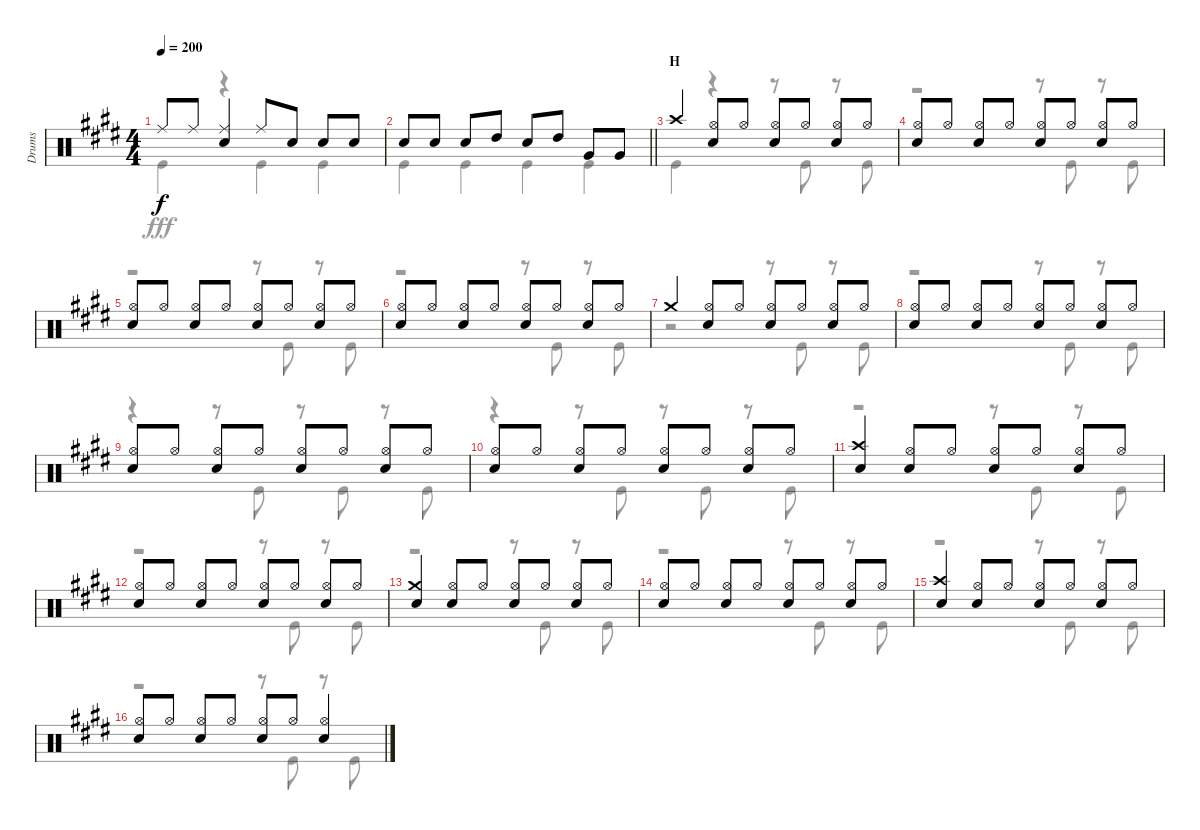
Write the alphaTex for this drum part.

\track ("Drums" "Drums") {instrument percussion}
\staff {score}
\articulation defaults
\voice
\ts (4 4)
\tempo 200
\clef neutral
\ks e "Ride (middle)".8{dy f} "Ride (middle)".8
("Ride (middle)" "Snare (hit) 2").4 "Ride (middle)".8 "Snare (hit) 2".8 "Snare (hit) 2".8 "Snare (hit) 2".8 |
\barLineRight lightlight "Snare (hit) 2".8 "Snare (hit) 2".8 "Snare (hit) 2".8 "High Tom (hit)".8 "Snare (hit) 2".8 "High Tom (hit)".8 "Very Low Tom (hit)".8 "Very Low Tom (hit)".8
|
\section ("" "H")
"Crash high (hit)".4 ("Hi-Hat (open)" "Snare (hit) 2").8 "Hi-Hat (open)".8 ("Hi-Hat (open)" "Snare (hit) 2").8 "Hi-Hat (open)".8 ("Hi-Hat (open)" "Snare (hit) 2").8 "Hi-Hat (open)".8 |
("Hi-Hat (open)" "Snare (hit) 2").8 "Hi-Hat (open)".8 ("Hi-Hat (open)" "Snare (hit) 2").8 "Hi-Hat (open)".8 ("Hi-Hat (open)" "Snare (hit) 2").8 "Hi-Hat (open)".8 ("Hi-Hat (open)" "Snare (hit) 2").8 "Hi-Hat (open)".8 |
("Hi-Hat (open)" "Snare (hit) 2").8 "Hi-Hat (open)".8 ("Hi-Hat (open)" "Snare (hit) 2").8 "Hi-Hat (open)".8 ("Hi-Hat (open)" "Snare (hit) 2").8 "Hi-Hat (open)".8 ("Hi-Hat (open)" "Snare (hit) 2").8 "Hi-Hat (open)".8 |
("Hi-Hat (open)" "Snare (hit) 2").8 "Hi-Hat (open)".8 ("Hi-Hat (open)" "Snare (hit) 2").8 "Hi-Hat (open)".8 ("Hi-Hat (open)" "Snare (hit) 2").8 "Hi-Hat (open)".8 ("Hi-Hat (open)" "Snare (hit) 2").8 "Hi-Hat (open)".8 |
"Crash medium (hit)".4 ("Hi-Hat (open)" "Snare (hit) 2").8 "Hi-Hat (open)".8 ("Hi-Hat (open)" "Snare (hit) 2").8 "Hi-Hat (open)".8 ("Hi-Hat (open)" "Snare (hit) 2").8 "Hi-Hat (open)".8 |
("Hi-Hat (open)" "Snare (hit) 2").8 "Hi-Hat (open)".8 ("Hi-Hat (open)" "Snare (hit) 2").8 "Hi-Hat (open)".8 ("Hi-Hat (open)" "Snare (hit) 2").8 "Hi-Hat (open)".8 ("Hi-Hat (open)" "Snare (hit) 2").8 "Hi-Hat (open)".8 |
("Hi-Hat (open)" "Snare (hit) 2").8 "Hi-Hat (open)".8 ("Hi-Hat (open)" "Snare (hit) 2").8 "Hi-Hat (open)".8 ("Hi-Hat (open)" "Snare (hit) 2").8 "Hi-Hat (open)".8 ("Hi-Hat (open)" "Snare (hit) 2").8 "Hi-Hat (open)".8 |
("Hi-Hat (open)" "Snare (hit) 2").8 "Hi-Hat (open)".8 ("Hi-Hat (open)" "Snare (hit) 2").8 "Hi-Hat (open)".8 ("Hi-Hat (open)" "Snare (hit) 2").8 "Hi-Hat (open)".8 ("Hi-Hat (open)" "Snare (hit) 2").8 "Hi-Hat (open)".8 |
("Crash high (hit)" "Snare (hit) 2").4 ("Hi-Hat (open)" "Snare (hit) 2").8 "Hi-Hat (open)".8 ("Hi-Hat (open)" "Snare (hit) 2").8 "Hi-Hat (open)".8 ("Hi-Hat (open)" "Snare (hit) 2").8 "Hi-Hat (open)".8 |
("Hi-Hat (open)" "Snare (hit) 2").8 "Hi-Hat (open)".8 ("Hi-Hat (open)" "Snare (hit) 2").8 "Hi-Hat (open)".8 ("Hi-Hat (open)" "Snare (hit) 2").8 "Hi-Hat (open)".8 ("Hi-Hat (open)" "Snare (hit) 2").8 "Hi-Hat (open)".8 |
("Crash medium (hit)" "Snare (hit) 2").4 ("Hi-Hat (open)" "Snare (hit) 2").8 "Hi-Hat (open)".8 ("Hi-Hat (open)" "Snare (hit) 2").8 "Hi-Hat (open)".8 ("Hi-Hat (open)" "Snare (hit) 2").8 "Hi-Hat (open)".8 |
("Hi-Hat (open)" "Snare (hit) 2").8 "Hi-Hat (open)".8 ("Hi-Hat (open)" "Snare (hit) 2").8 "Hi-Hat (open)".8 ("Hi-Hat (open)" "Snare (hit) 2").8 "Hi-Hat (open)".8 ("Hi-Hat (open)" "Snare (hit) 2").8 "Hi-Hat (open)".8 |
("Crash high (hit)" "Snare (hit) 2").4 ("Hi-Hat (open)" "Snare (hit) 2").8 "Hi-Hat (open)".8 ("Hi-Hat (open)" "Snare (hit) 2").8 "Hi-Hat (open)".8 ("Hi-Hat (open)" "Snare (hit) 2").8 "Hi-Hat (open)".8 |
("Hi-Hat (open)" "Snare (hit) 2").8 "Hi-Hat (open)".8 ("Hi-Hat (open)" "Snare (hit) 2").8 "Hi-Hat (open)".8 ("Hi-Hat (open)" "Snare (hit) 2").8 "Hi-Hat (open)".8 ("Hi-Hat (open)" "Snare (hit) 2").4
\voice
\clef neutral
\ottava regular
\simile none
\ks e "Kick (hit)".4{dy fff}
r.4 "Kick (hit)".4 "Kick (hit)".4 |
\barLineRight lightlight "Kick (hit)".4 "Kick (hit)".4 "Kick (hit)".4 "Kick (hit)".4
|
"Kick (hit)".4 r.4 r.8 "Kick (hit)".8 r.8 "Kick (hit)".8 |
r.2 r.8 "Kick (hit)".8 r.8 "Kick (hit)".8 |
r.2 r.8 "Kick (hit)".8 r.8 "Kick (hit)".8 |
r.2 r.8 "Kick (hit)".8 r.8 "Kick (hit)".8 |
r.2 r.8 "Kick (hit)".8 r.8 "Kick (hit)".8 |
r.2 r.8 "Kick (hit)".8 r.8 "Kick (hit)".8 |
r.4 r.8 "Kick (hit)".8 r.8 "Kick (hit)".8 r.8 "Kick (hit)".8 |
r.4 r.8 "Kick (hit)".8 r.8 "Kick (hit)".8 r.8 "Kick (hit)".8 |
r.2 r.8 "Kick (hit)".8 r.8 "Kick (hit)".8 |
r.2 r.8 "Kick (hit)".8 r.8 "Kick (hit)".8 |
r.2 r.8 "Kick (hit)".8 r.8 "Kick (hit)".8 |
r.2 r.8 "Kick (hit)".8 r.8 "Kick (hit)".8 |
r.2 r.8 "Kick (hit)".8 r.8 "Kick (hit)".8 |
r.2 r.8 "Kick (hit)".8 r.8 "Kick (hit)".8
